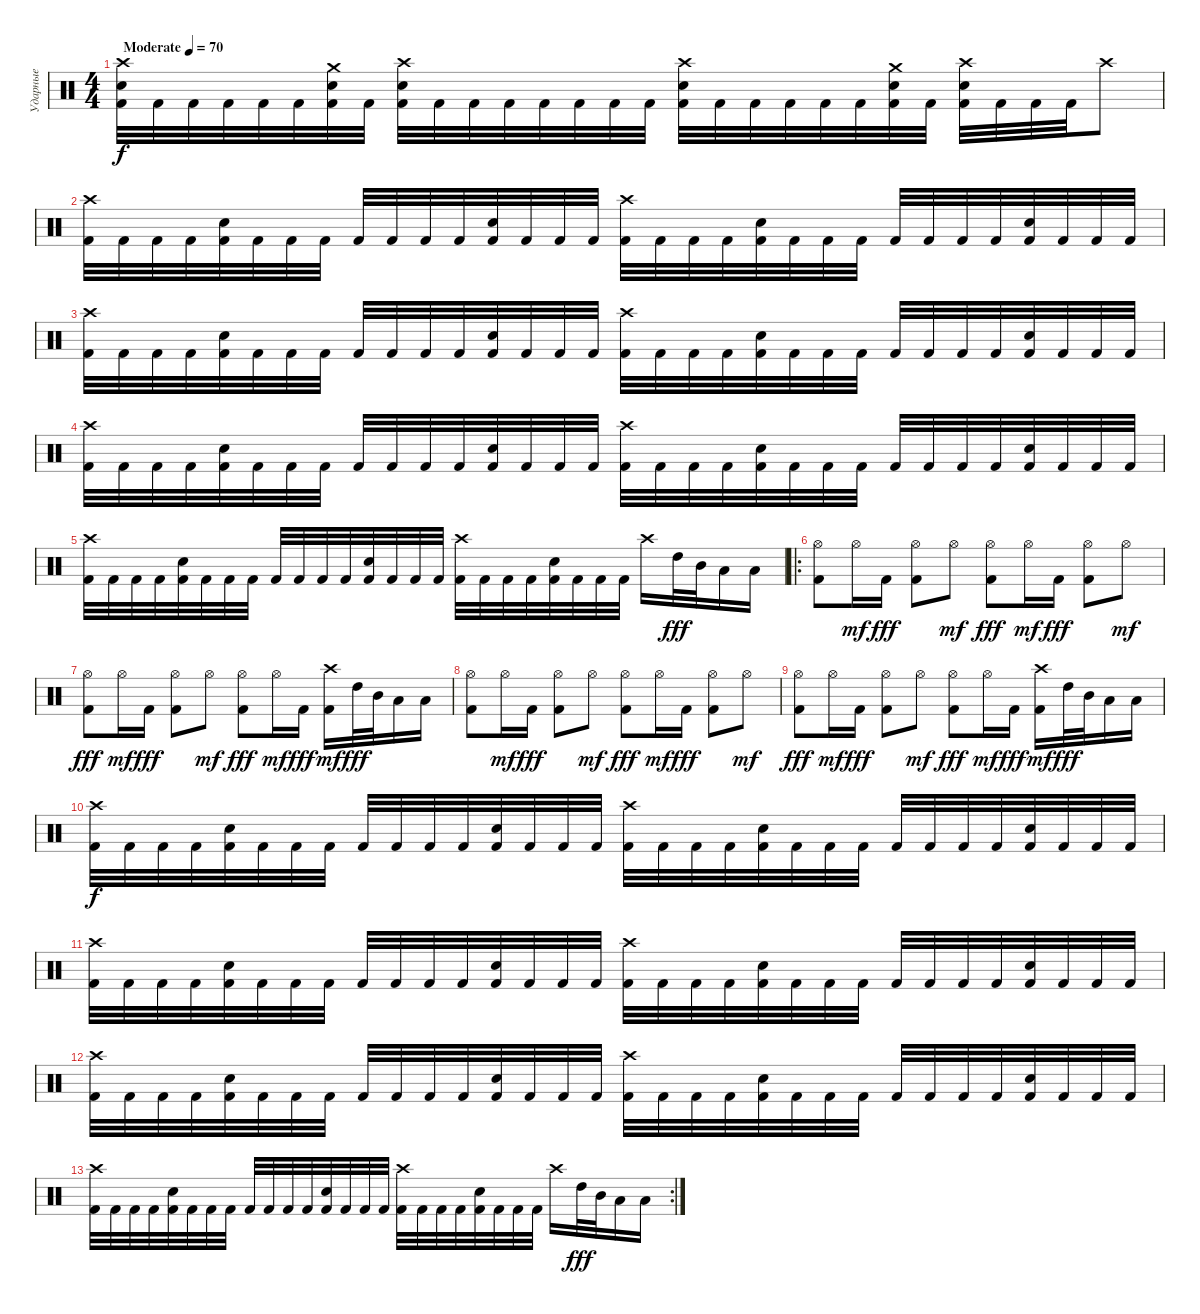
\track ("Ударные" "Ударные") {instrument percussion}
\staff {score}
\articulation defaults
\ts (4 4)
\tempo (70 "Moderate")
\clef neutral
\ks c
("Crash high (hit)" "Electric Snare (hit)" "Kick (hit) 2").32{dy f} "Kick (hit) 2".32 "Kick (hit) 2".32 "Kick (hit) 2".32 "Kick (hit) 2".32 "Kick (hit) 2".32 ("Crash medium (hit)" "Electric Snare (hit)" "Kick (hit) 2").32 "Kick (hit) 2".32 ("Crash high (hit)" "Electric Snare (hit)" "Kick (hit) 2").32 "Kick (hit) 2".32 "Kick (hit) 2".32 "Kick (hit) 2".32 "Kick (hit) 2".32 "Kick (hit) 2".32 "Kick (hit) 2".32 "Kick (hit) 2".32 ("Crash high (hit)" "Electric Snare (hit)" "Kick (hit) 2").32 "Kick (hit) 2".32 "Kick (hit) 2".32 "Kick (hit) 2".32 "Kick (hit) 2".32 "Kick (hit) 2".32 ("Crash medium (hit)" "Electric Snare (hit)" "Kick (hit) 2").32 "Kick (hit) 2".32 ("Crash high (hit)" "Electric Snare (hit)" "Kick (hit) 2").32 "Kick (hit) 2".32 "Kick (hit) 2".32 "Kick (hit) 2".32 "Crash high (hit)".8 |
("Crash high (hit)" "Kick (hit) 2").32 "Kick (hit) 2".32 "Kick (hit) 2".32 "Kick (hit) 2".32 ("Snare (hit) 2" "Kick (hit) 2").32 "Kick (hit) 2".32 "Kick (hit) 2".32 "Kick (hit) 2".32 "Kick (hit) 2".32 "Kick (hit) 2".32 "Kick (hit) 2".32 "Kick (hit) 2".32 ("Snare (hit) 2" "Kick (hit) 2").32 "Kick (hit) 2".32 "Kick (hit) 2".32 "Kick (hit) 2".32 ("Crash high (hit)" "Kick (hit) 2").32 "Kick (hit) 2".32 "Kick (hit) 2".32 "Kick (hit) 2".32 ("Snare (hit) 2" "Kick (hit) 2").32 "Kick (hit) 2".32 "Kick (hit) 2".32 "Kick (hit) 2".32 "Kick (hit) 2".32 "Kick (hit) 2".32 "Kick (hit) 2".32 "Kick (hit) 2".32 ("Snare (hit) 2" "Kick (hit) 2").32 "Kick (hit) 2".32 "Kick (hit) 2".32 "Kick (hit) 2".32 |
("Crash high (hit)" "Kick (hit) 2").32 "Kick (hit) 2".32 "Kick (hit) 2".32 "Kick (hit) 2".32 ("Snare (hit) 2" "Kick (hit) 2").32 "Kick (hit) 2".32 "Kick (hit) 2".32 "Kick (hit) 2".32 "Kick (hit) 2".32 "Kick (hit) 2".32 "Kick (hit) 2".32 "Kick (hit) 2".32 ("Snare (hit) 2" "Kick (hit) 2").32 "Kick (hit) 2".32 "Kick (hit) 2".32 "Kick (hit) 2".32 ("Crash high (hit)" "Kick (hit) 2").32 "Kick (hit) 2".32 "Kick (hit) 2".32 "Kick (hit) 2".32 ("Snare (hit) 2" "Kick (hit) 2").32 "Kick (hit) 2".32 "Kick (hit) 2".32 "Kick (hit) 2".32 "Kick (hit) 2".32 "Kick (hit) 2".32 "Kick (hit) 2".32 "Kick (hit) 2".32 ("Snare (hit) 2" "Kick (hit) 2").32 "Kick (hit) 2".32 "Kick (hit) 2".32 "Kick (hit) 2".32 |
("Crash high (hit)" "Kick (hit) 2").32 "Kick (hit) 2".32 "Kick (hit) 2".32 "Kick (hit) 2".32 ("Snare (hit) 2" "Kick (hit) 2").32 "Kick (hit) 2".32 "Kick (hit) 2".32 "Kick (hit) 2".32 "Kick (hit) 2".32 "Kick (hit) 2".32 "Kick (hit) 2".32 "Kick (hit) 2".32 ("Snare (hit) 2" "Kick (hit) 2").32 "Kick (hit) 2".32 "Kick (hit) 2".32 "Kick (hit) 2".32 ("Crash high (hit)" "Kick (hit) 2").32 "Kick (hit) 2".32 "Kick (hit) 2".32 "Kick (hit) 2".32 ("Snare (hit) 2" "Kick (hit) 2").32 "Kick (hit) 2".32 "Kick (hit) 2".32 "Kick (hit) 2".32 "Kick (hit) 2".32 "Kick (hit) 2".32 "Kick (hit) 2".32 "Kick (hit) 2".32 ("Snare (hit) 2" "Kick (hit) 2").32 "Kick (hit) 2".32 "Kick (hit) 2".32 "Kick (hit) 2".32 |
("Crash high (hit)" "Kick (hit) 2").32 "Kick (hit) 2".32 "Kick (hit) 2".32 "Kick (hit) 2".32 ("Snare (hit) 2" "Kick (hit) 2").32 "Kick (hit) 2".32 "Kick (hit) 2".32 "Kick (hit) 2".32 "Kick (hit) 2".32 "Kick (hit) 2".32 "Kick (hit) 2".32 "Kick (hit) 2".32 ("Snare (hit) 2" "Kick (hit) 2").32 "Kick (hit) 2".32 "Kick (hit) 2".32 "Kick (hit) 2".32 ("Crash high (hit)" "Kick (hit) 2").32 "Kick (hit) 2".32 "Kick (hit) 2".32 "Kick (hit) 2".32 ("Snare (hit) 2" "Kick (hit) 2").32 "Kick (hit) 2".32 "Kick (hit) 2".32 "Kick (hit) 2".32 "Crash high (hit)".16 "High Tom (hit)".32{dy fff} "Mid Tom (hit)".32 "Low Tom (hit)".16 "Low Tom (hit)".16 |
\ro
("Hi-Hat (open)" "Kick (hit) 2").8 "Hi-Hat (open)".16{dy mf} "Kick (hit) 2".16{dy fff} ("Hi-Hat (open)" "Kick (hit) 2").8 "Hi-Hat (open)".8{dy mf} ("Hi-Hat (open)" "Kick (hit) 2").8{dy fff} "Hi-Hat (open)".16{dy mf} "Kick (hit) 2".16{dy fff} ("Hi-Hat (open)" "Kick (hit) 2").8 "Hi-Hat (open)".8{dy mf} |
("Hi-Hat (open)" "Kick (hit) 2").8{dy fff} "Hi-Hat (open)".16{dy mf} "Kick (hit) 2".16{dy fff} ("Hi-Hat (open)" "Kick (hit) 2").8 "Hi-Hat (open)".8{dy mf} ("Hi-Hat (open)" "Kick (hit) 2").8{dy fff} "Hi-Hat (open)".16{dy mf} "Kick (hit) 2".16{dy fff} ("Crash high (hit)" "Kick (hit) 2").16{dy mf} "High Tom (hit)".32{dy fff} "Mid Tom (hit)".32 "Low Tom (hit)".16 "Low Tom (hit)".16 |
("Hi-Hat (open)" "Kick (hit) 2").8 "Hi-Hat (open)".16{dy mf} "Kick (hit) 2".16{dy fff} ("Hi-Hat (open)" "Kick (hit) 2").8 "Hi-Hat (open)".8{dy mf} ("Hi-Hat (open)" "Kick (hit) 2").8{dy fff} "Hi-Hat (open)".16{dy mf} "Kick (hit) 2".16{dy fff} ("Hi-Hat (open)" "Kick (hit) 2").8 "Hi-Hat (open)".8{dy mf} |
("Hi-Hat (open)" "Kick (hit) 2").8{dy fff} "Hi-Hat (open)".16{dy mf} "Kick (hit) 2".16{dy fff} ("Hi-Hat (open)" "Kick (hit) 2").8 "Hi-Hat (open)".8{dy mf} ("Hi-Hat (open)" "Kick (hit) 2").8{dy fff} "Hi-Hat (open)".16{dy mf} "Kick (hit) 2".16{dy fff} ("Crash high (hit)" "Kick (hit) 2").16{dy mf} "High Tom (hit)".32{dy fff} "Mid Tom (hit)".32 "Low Tom (hit)".16 "Low Tom (hit)".16 |
("Crash high (hit)" "Kick (hit) 2").32{dy f} "Kick (hit) 2".32 "Kick (hit) 2".32 "Kick (hit) 2".32 ("Snare (hit) 2" "Kick (hit) 2").32 "Kick (hit) 2".32 "Kick (hit) 2".32 "Kick (hit) 2".32 "Kick (hit) 2".32 "Kick (hit) 2".32 "Kick (hit) 2".32 "Kick (hit) 2".32 ("Snare (hit) 2" "Kick (hit) 2").32 "Kick (hit) 2".32 "Kick (hit) 2".32 "Kick (hit) 2".32 ("Crash high (hit)" "Kick (hit) 2").32 "Kick (hit) 2".32 "Kick (hit) 2".32 "Kick (hit) 2".32 ("Snare (hit) 2" "Kick (hit) 2").32 "Kick (hit) 2".32 "Kick (hit) 2".32 "Kick (hit) 2".32 "Kick (hit) 2".32 "Kick (hit) 2".32 "Kick (hit) 2".32 "Kick (hit) 2".32 ("Snare (hit) 2" "Kick (hit) 2").32 "Kick (hit) 2".32 "Kick (hit) 2".32 "Kick (hit) 2".32 |
("Crash high (hit)" "Kick (hit) 2").32 "Kick (hit) 2".32 "Kick (hit) 2".32 "Kick (hit) 2".32 ("Snare (hit) 2" "Kick (hit) 2").32 "Kick (hit) 2".32 "Kick (hit) 2".32 "Kick (hit) 2".32 "Kick (hit) 2".32 "Kick (hit) 2".32 "Kick (hit) 2".32 "Kick (hit) 2".32 ("Snare (hit) 2" "Kick (hit) 2").32 "Kick (hit) 2".32 "Kick (hit) 2".32 "Kick (hit) 2".32 ("Crash high (hit)" "Kick (hit) 2").32 "Kick (hit) 2".32 "Kick (hit) 2".32 "Kick (hit) 2".32 ("Snare (hit) 2" "Kick (hit) 2").32 "Kick (hit) 2".32 "Kick (hit) 2".32 "Kick (hit) 2".32 "Kick (hit) 2".32 "Kick (hit) 2".32 "Kick (hit) 2".32 "Kick (hit) 2".32 ("Snare (hit) 2" "Kick (hit) 2").32 "Kick (hit) 2".32 "Kick (hit) 2".32 "Kick (hit) 2".32 |
("Crash high (hit)" "Kick (hit) 2").32 "Kick (hit) 2".32 "Kick (hit) 2".32 "Kick (hit) 2".32 ("Snare (hit) 2" "Kick (hit) 2").32 "Kick (hit) 2".32 "Kick (hit) 2".32 "Kick (hit) 2".32 "Kick (hit) 2".32 "Kick (hit) 2".32 "Kick (hit) 2".32 "Kick (hit) 2".32 ("Snare (hit) 2" "Kick (hit) 2").32 "Kick (hit) 2".32 "Kick (hit) 2".32 "Kick (hit) 2".32 ("Crash high (hit)" "Kick (hit) 2").32 "Kick (hit) 2".32 "Kick (hit) 2".32 "Kick (hit) 2".32 ("Snare (hit) 2" "Kick (hit) 2").32 "Kick (hit) 2".32 "Kick (hit) 2".32 "Kick (hit) 2".32 "Kick (hit) 2".32 "Kick (hit) 2".32 "Kick (hit) 2".32 "Kick (hit) 2".32 ("Snare (hit) 2" "Kick (hit) 2").32 "Kick (hit) 2".32 "Kick (hit) 2".32 "Kick (hit) 2".32 |
\rc 2
("Crash high (hit)" "Kick (hit) 2").32 "Kick (hit) 2".32 "Kick (hit) 2".32 "Kick (hit) 2".32 ("Snare (hit) 2" "Kick (hit) 2").32 "Kick (hit) 2".32 "Kick (hit) 2".32 "Kick (hit) 2".32 "Kick (hit) 2".32 "Kick (hit) 2".32 "Kick (hit) 2".32 "Kick (hit) 2".32 ("Snare (hit) 2" "Kick (hit) 2").32 "Kick (hit) 2".32 "Kick (hit) 2".32 "Kick (hit) 2".32 ("Crash high (hit)" "Kick (hit) 2").32 "Kick (hit) 2".32 "Kick (hit) 2".32 "Kick (hit) 2".32 ("Snare (hit) 2" "Kick (hit) 2").32 "Kick (hit) 2".32 "Kick (hit) 2".32 "Kick (hit) 2".32 "Crash high (hit)".16 "High Tom (hit)".32{dy fff} "Mid Tom (hit)".32 "Low Tom (hit)".16 "Low Tom (hit)".16
